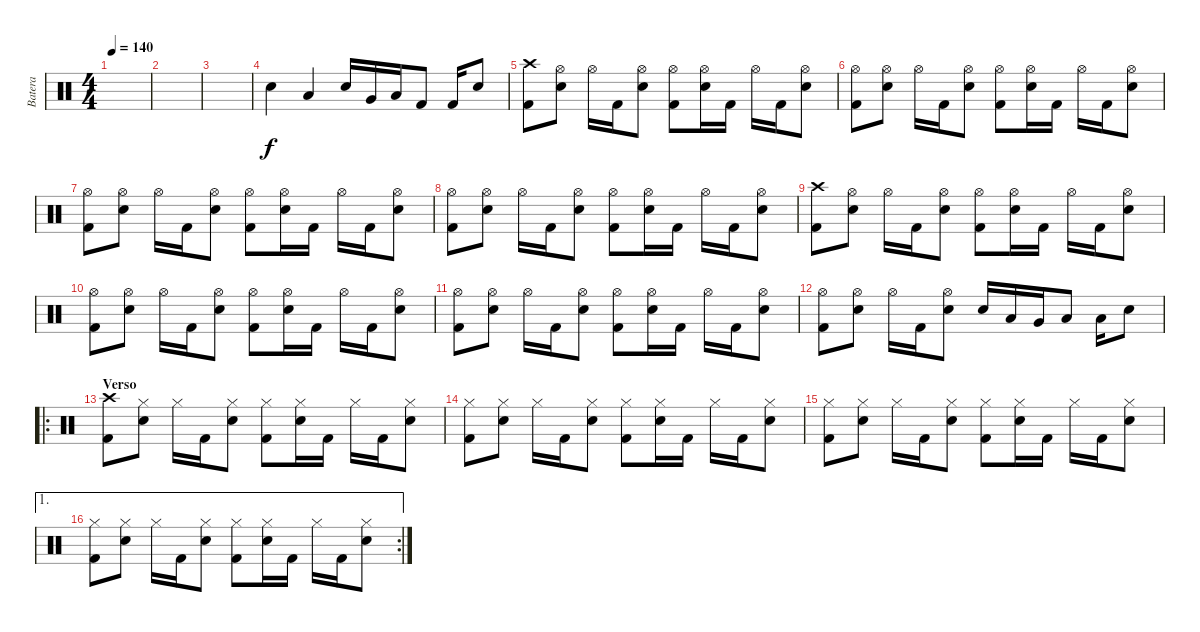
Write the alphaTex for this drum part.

\track ("Batera" "Batera") {instrument percussion}
\staff {score}
\articulation defaults
\ts (4 4)
\tempo 140
\clef neutral
\ks c
|
|
|
"Snare (hit) 2".4 "Low Tom (hit)".4 "Snare (hit) 2".16 "Very Low Tom (hit)".16 "Low Floor Tom (hit)".16 "Kick (hit) 2".8 "Kick (hit) 2".16 "Snare (hit) 2".8 |
("Crash high (hit)" "Kick (hit) 2").8 ("Hi-Hat (open)" "Snare (hit) 2").8 "Hi-Hat (open)".16 "Kick (hit) 2".16 ("Hi-Hat (open)" "Snare (hit) 2").8 ("Hi-Hat (open)" "Kick (hit) 2").8 ("Hi-Hat (open)" "Snare (hit) 2").16 "Kick (hit) 2".16 "Hi-Hat (open)".16 "Kick (hit) 2".16 ("Hi-Hat (open)" "Snare (hit) 2").8 |
("Hi-Hat (open)" "Kick (hit) 2").8 ("Hi-Hat (open)" "Snare (hit) 2").8 "Hi-Hat (open)".16 "Kick (hit) 2".16 ("Hi-Hat (open)" "Snare (hit) 2").8 ("Hi-Hat (open)" "Kick (hit) 2").8 ("Hi-Hat (open)" "Snare (hit) 2").16 "Kick (hit) 2".16 "Hi-Hat (open)".16 "Kick (hit) 2".16 ("Hi-Hat (open)" "Snare (hit) 2").8 |
("Hi-Hat (open)" "Kick (hit) 2").8 ("Hi-Hat (open)" "Snare (hit) 2").8 "Hi-Hat (open)".16 "Kick (hit) 2".16 ("Hi-Hat (open)" "Snare (hit) 2").8 ("Hi-Hat (open)" "Kick (hit) 2").8 ("Hi-Hat (open)" "Snare (hit) 2").16 "Kick (hit) 2".16 "Hi-Hat (open)".16 "Kick (hit) 2".16 ("Hi-Hat (open)" "Snare (hit) 2").8 |
("Hi-Hat (open)" "Kick (hit) 2").8 ("Hi-Hat (open)" "Snare (hit) 2").8 "Hi-Hat (open)".16 "Kick (hit) 2".16 ("Hi-Hat (open)" "Snare (hit) 2").8 ("Hi-Hat (open)" "Kick (hit) 2").8 ("Hi-Hat (open)" "Snare (hit) 2").16 "Kick (hit) 2".16 "Hi-Hat (open)".16 "Kick (hit) 2".16 ("Hi-Hat (open)" "Snare (hit) 2").8 |
("Crash high (hit)" "Kick (hit) 2").8 ("Hi-Hat (open)" "Snare (hit) 2").8 "Hi-Hat (open)".16 "Kick (hit) 2".16 ("Hi-Hat (open)" "Snare (hit) 2").8 ("Hi-Hat (open)" "Kick (hit) 2").8 ("Hi-Hat (open)" "Snare (hit) 2").16 "Kick (hit) 2".16 "Hi-Hat (open)".16 "Kick (hit) 2".16 ("Hi-Hat (open)" "Snare (hit) 2").8 |
("Hi-Hat (open)" "Kick (hit) 2").8 ("Hi-Hat (open)" "Snare (hit) 2").8 "Hi-Hat (open)".16 "Kick (hit) 2".16 ("Hi-Hat (open)" "Snare (hit) 2").8 ("Hi-Hat (open)" "Kick (hit) 2").8 ("Hi-Hat (open)" "Snare (hit) 2").16 "Kick (hit) 2".16 "Hi-Hat (open)".16 "Kick (hit) 2".16 ("Hi-Hat (open)" "Snare (hit) 2").8 |
("Hi-Hat (open)" "Kick (hit) 2").8 ("Hi-Hat (open)" "Snare (hit) 2").8 "Hi-Hat (open)".16 "Kick (hit) 2".16 ("Hi-Hat (open)" "Snare (hit) 2").8 ("Hi-Hat (open)" "Kick (hit) 2").8 ("Hi-Hat (open)" "Snare (hit) 2").16 "Kick (hit) 2".16 "Hi-Hat (open)".16 "Kick (hit) 2".16 ("Hi-Hat (open)" "Snare (hit) 2").8 |
("Hi-Hat (open)" "Kick (hit) 2").8 ("Hi-Hat (open)" "Snare (hit) 2").8 "Hi-Hat (open)".16 "Kick (hit) 2".16 ("Hi-Hat (open)" "Snare (hit) 2").8 "Snare (hit) 2".16 "Low Tom (hit)".16 "Very Low Tom (hit)".16 "Low Floor Tom (hit)".8 "Low Floor Tom (hit)".16 "Snare (hit) 2".8 |
\ro
\section ("" "Verso")
("Crash high (hit)" "Kick (hit) 2").8 ("Hi-Hat (closed)" "Snare (hit) 2").8 "Hi-Hat (closed)".16 "Kick (hit) 2".16 ("Hi-Hat (closed)" "Snare (hit) 2").8 ("Hi-Hat (closed)" "Kick (hit) 2").8 ("Hi-Hat (closed)" "Snare (hit) 2").16 "Kick (hit) 2".16 "Hi-Hat (closed)".16 "Kick (hit) 2".16 ("Hi-Hat (closed)" "Snare (hit) 2").8 |
("Hi-Hat (closed)" "Kick (hit) 2").8 ("Hi-Hat (closed)" "Snare (hit) 2").8 "Hi-Hat (closed)".16 "Kick (hit) 2".16 ("Hi-Hat (closed)" "Snare (hit) 2").8 ("Hi-Hat (closed)" "Kick (hit) 2").8 ("Hi-Hat (closed)" "Snare (hit) 2").16 "Kick (hit) 2".16 "Hi-Hat (closed)".16 "Kick (hit) 2".16 ("Hi-Hat (closed)" "Snare (hit) 2").8 |
("Hi-Hat (closed)" "Kick (hit) 2").8 ("Hi-Hat (closed)" "Snare (hit) 2").8 "Hi-Hat (closed)".16 "Kick (hit) 2".16 ("Hi-Hat (closed)" "Snare (hit) 2").8 ("Hi-Hat (closed)" "Kick (hit) 2").8 ("Hi-Hat (closed)" "Snare (hit) 2").16 "Kick (hit) 2".16 "Hi-Hat (closed)".16 "Kick (hit) 2".16 ("Hi-Hat (closed)" "Snare (hit) 2").8 |
\ae 1
\rc 2
("Hi-Hat (closed)" "Kick (hit) 2").8 ("Hi-Hat (closed)" "Snare (hit) 2").8 "Hi-Hat (closed)".16 "Kick (hit) 2".16 ("Hi-Hat (closed)" "Snare (hit) 2").8 ("Hi-Hat (closed)" "Kick (hit) 2").8 ("Hi-Hat (closed)" "Snare (hit) 2").16 "Kick (hit) 2".16 "Hi-Hat (closed)".16 "Kick (hit) 2".16 ("Hi-Hat (closed)" "Snare (hit) 2").8
